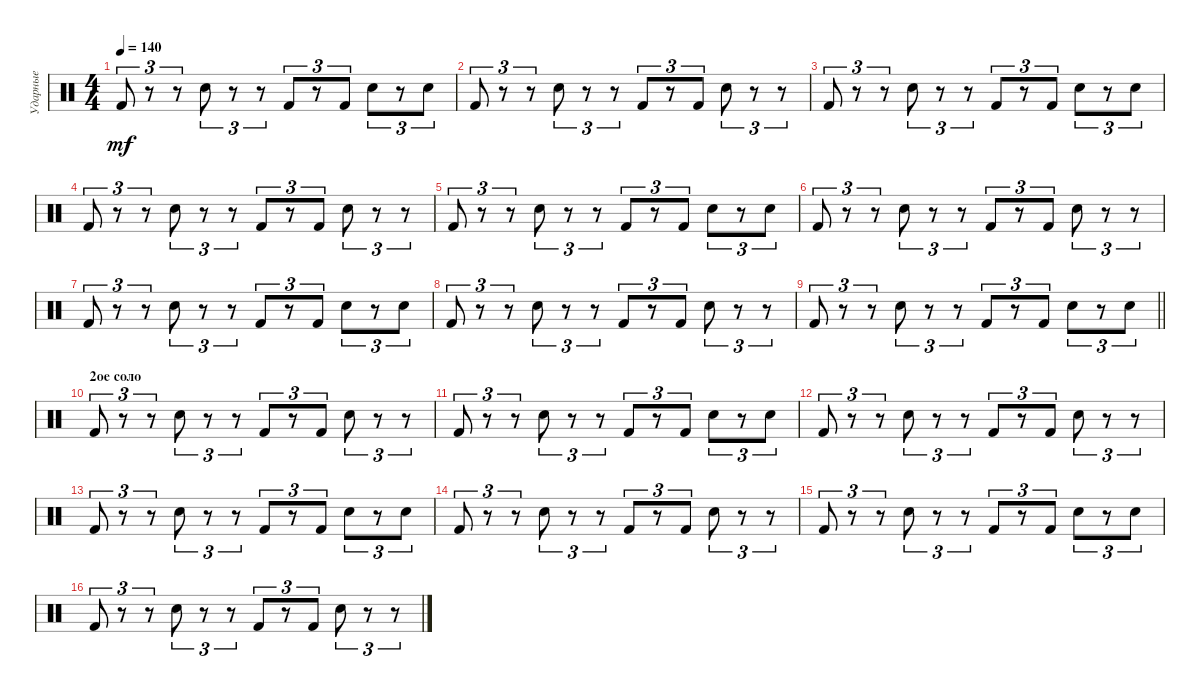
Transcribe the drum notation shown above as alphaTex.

\track ("Ударные" "Ударные") {instrument percussion}
\staff {score}
\articulation defaults
\ts (4 4)
\tempo 140
\clef neutral
\ks c "Kick (hit) 2".8{tu (3 2) dy mf}
r.8{tu (3 2)} r.8{tu (3 2)} "Electric Snare (hit)".8{tu (3 2)} r.8{tu (3 2)} r.8{tu (3 2)} "Kick (hit) 2".8{tu (3 2)} r.8{tu (3 2)} "Kick (hit) 2".8{tu (3 2)} "Electric Snare (hit)".8{tu (3 2)} r.8{tu (3 2)} "Electric Snare (hit)".8{tu (3 2)} |
"Kick (hit) 2".8{tu (3 2)} r.8{tu (3 2)} r.8{tu (3 2)} "Electric Snare (hit)".8{tu (3 2)} r.8{tu (3 2)} r.8{tu (3 2)} "Kick (hit) 2".8{tu (3 2)} r.8{tu (3 2)} "Kick (hit) 2".8{tu (3 2)} "Electric Snare (hit)".8{tu (3 2)} r.8{tu (3 2)} r.8{tu (3 2)} |
"Kick (hit) 2".8{tu (3 2)} r.8{tu (3 2)} r.8{tu (3 2)} "Electric Snare (hit)".8{tu (3 2)} r.8{tu (3 2)} r.8{tu (3 2)} "Kick (hit) 2".8{tu (3 2)} r.8{tu (3 2)} "Kick (hit) 2".8{tu (3 2)} "Electric Snare (hit)".8{tu (3 2)} r.8{tu (3 2)} "Electric Snare (hit)".8{tu (3 2)} |
"Kick (hit) 2".8{tu (3 2)} r.8{tu (3 2)} r.8{tu (3 2)} "Electric Snare (hit)".8{tu (3 2)} r.8{tu (3 2)} r.8{tu (3 2)} "Kick (hit) 2".8{tu (3 2)} r.8{tu (3 2)} "Kick (hit) 2".8{tu (3 2)} "Electric Snare (hit)".8{tu (3 2)} r.8{tu (3 2)} r.8{tu (3 2)} |
"Kick (hit) 2".8{tu (3 2)} r.8{tu (3 2)} r.8{tu (3 2)} "Electric Snare (hit)".8{tu (3 2)} r.8{tu (3 2)} r.8{tu (3 2)} "Kick (hit) 2".8{tu (3 2)} r.8{tu (3 2)} "Kick (hit) 2".8{tu (3 2)} "Electric Snare (hit)".8{tu (3 2)} r.8{tu (3 2)} "Electric Snare (hit)".8{tu (3 2)} |
"Kick (hit) 2".8{tu (3 2)} r.8{tu (3 2)} r.8{tu (3 2)} "Electric Snare (hit)".8{tu (3 2)} r.8{tu (3 2)} r.8{tu (3 2)} "Kick (hit) 2".8{tu (3 2)} r.8{tu (3 2)} "Kick (hit) 2".8{tu (3 2)} "Electric Snare (hit)".8{tu (3 2)} r.8{tu (3 2)} r.8{tu (3 2)} |
"Kick (hit) 2".8{tu (3 2)} r.8{tu (3 2)} r.8{tu (3 2)} "Electric Snare (hit)".8{tu (3 2)} r.8{tu (3 2)} r.8{tu (3 2)} "Kick (hit) 2".8{tu (3 2)} r.8{tu (3 2)} "Kick (hit) 2".8{tu (3 2)} "Electric Snare (hit)".8{tu (3 2)} r.8{tu (3 2)} "Electric Snare (hit)".8{tu (3 2)} |
"Kick (hit) 2".8{tu (3 2)} r.8{tu (3 2)} r.8{tu (3 2)} "Electric Snare (hit)".8{tu (3 2)} r.8{tu (3 2)} r.8{tu (3 2)} "Kick (hit) 2".8{tu (3 2)} r.8{tu (3 2)} "Kick (hit) 2".8{tu (3 2)} "Electric Snare (hit)".8{tu (3 2)} r.8{tu (3 2)} r.8{tu (3 2)} |
\barLineRight lightlight "Kick (hit) 2".8{tu (3 2)}
r.8{tu (3 2)} r.8{tu (3 2)} "Electric Snare (hit)".8{tu (3 2)} r.8{tu (3 2)} r.8{tu (3 2)} "Kick (hit) 2".8{tu (3 2)} r.8{tu (3 2)} "Kick (hit) 2".8{tu (3 2)} "Electric Snare (hit)".8{tu (3 2)} r.8{tu (3 2)} "Electric Snare (hit)".8{tu (3 2)} |
\section ("" "2ое соло")
"Kick (hit) 2".8{tu (3 2)} r.8{tu (3 2)} r.8{tu (3 2)} "Electric Snare (hit)".8{tu (3 2)} r.8{tu (3 2)} r.8{tu (3 2)} "Kick (hit) 2".8{tu (3 2)} r.8{tu (3 2)} "Kick (hit) 2".8{tu (3 2)} "Electric Snare (hit)".8{tu (3 2)} r.8{tu (3 2)} r.8{tu (3 2)} |
"Kick (hit) 2".8{tu (3 2)} r.8{tu (3 2)} r.8{tu (3 2)} "Electric Snare (hit)".8{tu (3 2)} r.8{tu (3 2)} r.8{tu (3 2)} "Kick (hit) 2".8{tu (3 2)} r.8{tu (3 2)} "Kick (hit) 2".8{tu (3 2)} "Electric Snare (hit)".8{tu (3 2)} r.8{tu (3 2)} "Electric Snare (hit)".8{tu (3 2)} |
"Kick (hit) 2".8{tu (3 2)} r.8{tu (3 2)} r.8{tu (3 2)} "Electric Snare (hit)".8{tu (3 2)} r.8{tu (3 2)} r.8{tu (3 2)} "Kick (hit) 2".8{tu (3 2)} r.8{tu (3 2)} "Kick (hit) 2".8{tu (3 2)} "Electric Snare (hit)".8{tu (3 2)} r.8{tu (3 2)} r.8{tu (3 2)} |
"Kick (hit) 2".8{tu (3 2)} r.8{tu (3 2)} r.8{tu (3 2)} "Electric Snare (hit)".8{tu (3 2)} r.8{tu (3 2)} r.8{tu (3 2)} "Kick (hit) 2".8{tu (3 2)} r.8{tu (3 2)} "Kick (hit) 2".8{tu (3 2)} "Electric Snare (hit)".8{tu (3 2)} r.8{tu (3 2)} "Electric Snare (hit)".8{tu (3 2)} |
"Kick (hit) 2".8{tu (3 2)} r.8{tu (3 2)} r.8{tu (3 2)} "Electric Snare (hit)".8{tu (3 2)} r.8{tu (3 2)} r.8{tu (3 2)} "Kick (hit) 2".8{tu (3 2)} r.8{tu (3 2)} "Kick (hit) 2".8{tu (3 2)} "Electric Snare (hit)".8{tu (3 2)} r.8{tu (3 2)} r.8{tu (3 2)} |
"Kick (hit) 2".8{tu (3 2)} r.8{tu (3 2)} r.8{tu (3 2)} "Electric Snare (hit)".8{tu (3 2)} r.8{tu (3 2)} r.8{tu (3 2)} "Kick (hit) 2".8{tu (3 2)} r.8{tu (3 2)} "Kick (hit) 2".8{tu (3 2)} "Electric Snare (hit)".8{tu (3 2)} r.8{tu (3 2)} "Electric Snare (hit)".8{tu (3 2)} |
"Kick (hit) 2".8{tu (3 2)} r.8{tu (3 2)} r.8{tu (3 2)} "Electric Snare (hit)".8{tu (3 2)} r.8{tu (3 2)} r.8{tu (3 2)} "Kick (hit) 2".8{tu (3 2)} r.8{tu (3 2)} "Kick (hit) 2".8{tu (3 2)} "Electric Snare (hit)".8{tu (3 2)} r.8{tu (3 2)} r.8{tu (3 2)}
